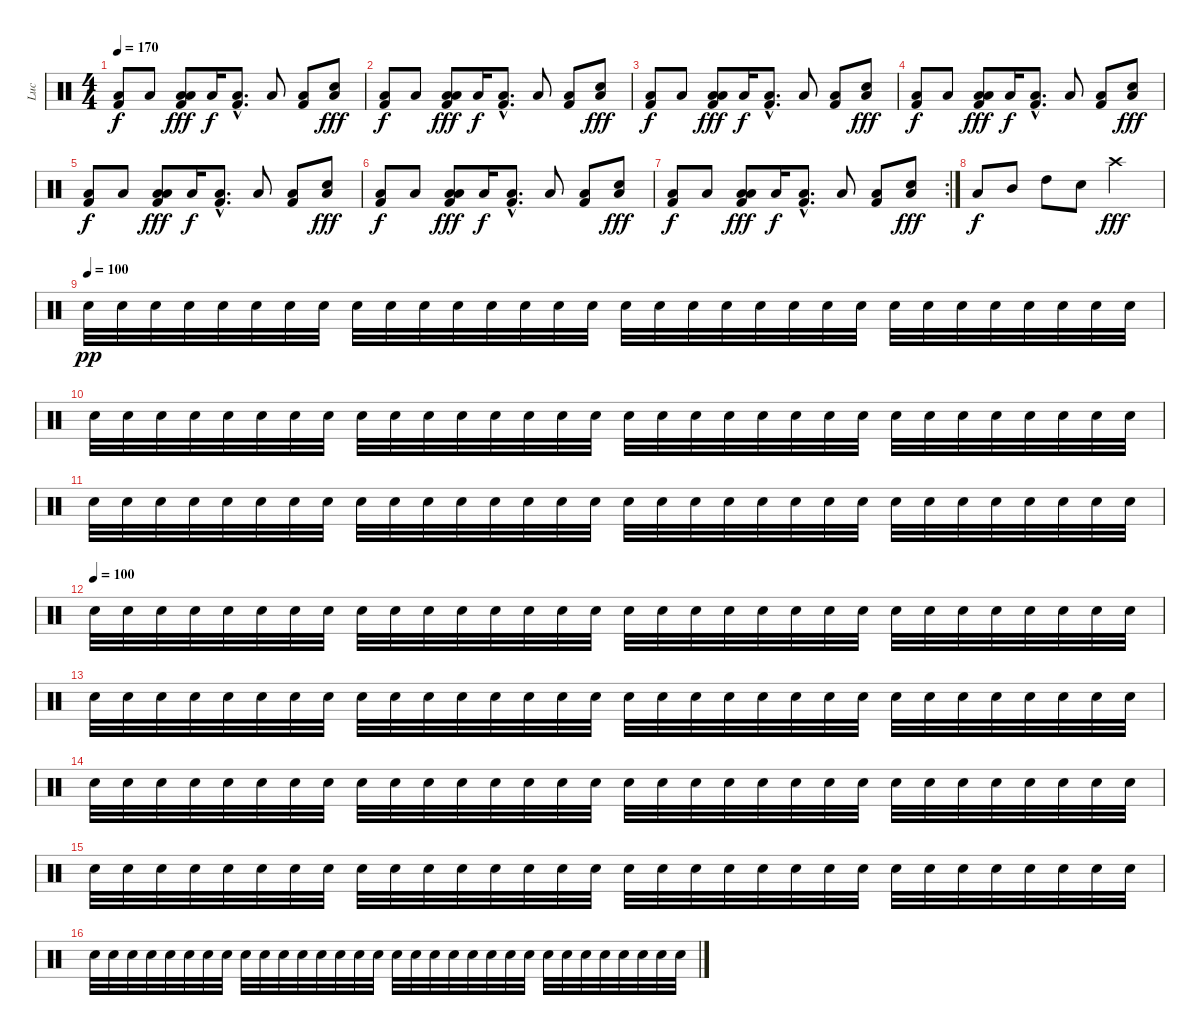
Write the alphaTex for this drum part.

\track ("Luc" "Luc") {instrument percussion}
\staff {score}
\articulation defaults
\ts (4 4)
\tempo 170
\clef neutral
\ks c
("Low Tom (hit)" "Kick (hit) 2").8{dy f} "Low Tom (hit)".8 ("Low Tom (hit)" "Low Tom (hit)" "Kick (hit) 2").8{dy fff} "Low Tom (hit)".16{dy f} ("Low Tom (hit)"{hac} "Kick (hit) 2"{hac}).8{d} "Low Tom (hit)".8 ("Low Tom (hit)" "Kick (hit) 2").8 ("Low Tom (hit)" "Snare (hit) 2").8{dy fff} |
("Low Tom (hit)" "Kick (hit) 2").8{dy f} "Low Tom (hit)".8 ("Low Tom (hit)" "Low Tom (hit)" "Kick (hit) 2").8{dy fff} "Low Tom (hit)".16{dy f} ("Low Tom (hit)"{hac} "Kick (hit) 2"{hac}).8{d} "Low Tom (hit)".8 ("Low Tom (hit)" "Kick (hit) 2").8 ("Low Tom (hit)" "Snare (hit) 2").8{dy fff} |
("Low Tom (hit)" "Kick (hit) 2").8{dy f} "Low Tom (hit)".8 ("Low Tom (hit)" "Low Tom (hit)" "Kick (hit) 2").8{dy fff} "Low Tom (hit)".16{dy f} ("Low Tom (hit)"{hac} "Kick (hit) 2"{hac}).8{d} "Low Tom (hit)".8 ("Low Tom (hit)" "Kick (hit) 2").8 ("Low Tom (hit)" "Snare (hit) 2").8{dy fff} |
("Low Tom (hit)" "Kick (hit) 2").8{dy f} "Low Tom (hit)".8 ("Low Tom (hit)" "Low Tom (hit)" "Kick (hit) 2").8{dy fff} "Low Tom (hit)".16{dy f} ("Low Tom (hit)"{hac} "Kick (hit) 2"{hac}).8{d} "Low Tom (hit)".8 ("Low Tom (hit)" "Kick (hit) 2").8 ("Low Tom (hit)" "Snare (hit) 2").8{dy fff} |
("Low Tom (hit)" "Kick (hit) 2").8{dy f} "Low Tom (hit)".8 ("Low Tom (hit)" "Low Tom (hit)" "Kick (hit) 2").8{dy fff} "Low Tom (hit)".16{dy f} ("Low Tom (hit)"{hac} "Kick (hit) 2"{hac}).8{d} "Low Tom (hit)".8 ("Low Tom (hit)" "Kick (hit) 2").8 ("Low Tom (hit)" "Snare (hit) 2").8{dy fff} |
("Low Tom (hit)" "Kick (hit) 2").8{dy f} "Low Tom (hit)".8 ("Low Tom (hit)" "Low Tom (hit)" "Kick (hit) 2").8{dy fff} "Low Tom (hit)".16{dy f} ("Low Tom (hit)"{hac} "Kick (hit) 2"{hac}).8{d} "Low Tom (hit)".8 ("Low Tom (hit)" "Kick (hit) 2").8 ("Low Tom (hit)" "Snare (hit) 2").8{dy fff} |
\rc 2
("Low Tom (hit)" "Kick (hit) 2").8{dy f} "Low Tom (hit)".8 ("Low Tom (hit)" "Low Tom (hit)" "Kick (hit) 2").8{dy fff} "Low Tom (hit)".16{dy f} ("Low Tom (hit)"{hac} "Kick (hit) 2"{hac}).8{d} "Low Tom (hit)".8 ("Low Tom (hit)" "Kick (hit) 2").8 ("Low Tom (hit)" "Snare (hit) 2").8{dy fff} |
"Low Tom (hit)".8{dy f} "Mid Tom (hit)".8 "High Tom (hit)".8 "Snare (hit) 2".8 "Crash high (hit)".2{dy fff} |
\tempo (100)
"Snare (hit) 2".32{dy pp} "Snare (hit) 2".32 "Snare (hit) 2".32 "Snare (hit) 2".32 "Snare (hit) 2".32 "Snare (hit) 2".32 "Snare (hit) 2".32 "Snare (hit) 2".32 "Snare (hit) 2".32 "Snare (hit) 2".32 "Snare (hit) 2".32 "Snare (hit) 2".32 "Snare (hit) 2".32 "Snare (hit) 2".32 "Snare (hit) 2".32 "Snare (hit) 2".32 "Snare (hit) 2".32 "Snare (hit) 2".32 "Snare (hit) 2".32 "Snare (hit) 2".32 "Snare (hit) 2".32 "Snare (hit) 2".32 "Snare (hit) 2".32 "Snare (hit) 2".32 "Snare (hit) 2".32 "Snare (hit) 2".32 "Snare (hit) 2".32 "Snare (hit) 2".32 "Snare (hit) 2".32 "Snare (hit) 2".32 "Snare (hit) 2".32 "Snare (hit) 2".32 |
"Snare (hit) 2".32 "Snare (hit) 2".32 "Snare (hit) 2".32 "Snare (hit) 2".32 "Snare (hit) 2".32 "Snare (hit) 2".32 "Snare (hit) 2".32 "Snare (hit) 2".32 "Snare (hit) 2".32 "Snare (hit) 2".32 "Snare (hit) 2".32 "Snare (hit) 2".32 "Snare (hit) 2".32 "Snare (hit) 2".32 "Snare (hit) 2".32 "Snare (hit) 2".32 "Snare (hit) 2".32 "Snare (hit) 2".32 "Snare (hit) 2".32 "Snare (hit) 2".32 "Snare (hit) 2".32 "Snare (hit) 2".32 "Snare (hit) 2".32 "Snare (hit) 2".32 "Snare (hit) 2".32 "Snare (hit) 2".32 "Snare (hit) 2".32 "Snare (hit) 2".32 "Snare (hit) 2".32 "Snare (hit) 2".32 "Snare (hit) 2".32 "Snare (hit) 2".32 |
"Snare (hit) 2".32 "Snare (hit) 2".32 "Snare (hit) 2".32 "Snare (hit) 2".32 "Snare (hit) 2".32 "Snare (hit) 2".32 "Snare (hit) 2".32 "Snare (hit) 2".32 "Snare (hit) 2".32 "Snare (hit) 2".32 "Snare (hit) 2".32 "Snare (hit) 2".32 "Snare (hit) 2".32 "Snare (hit) 2".32 "Snare (hit) 2".32 "Snare (hit) 2".32 "Snare (hit) 2".32 "Snare (hit) 2".32 "Snare (hit) 2".32 "Snare (hit) 2".32 "Snare (hit) 2".32 "Snare (hit) 2".32 "Snare (hit) 2".32 "Snare (hit) 2".32 "Snare (hit) 2".32 "Snare (hit) 2".32 "Snare (hit) 2".32 "Snare (hit) 2".32 "Snare (hit) 2".32 "Snare (hit) 2".32 "Snare (hit) 2".32 "Snare (hit) 2".32 |
\tempo (100)
"Snare (hit) 2".32 "Snare (hit) 2".32 "Snare (hit) 2".32 "Snare (hit) 2".32 "Snare (hit) 2".32 "Snare (hit) 2".32 "Snare (hit) 2".32 "Snare (hit) 2".32 "Snare (hit) 2".32 "Snare (hit) 2".32 "Snare (hit) 2".32 "Snare (hit) 2".32 "Snare (hit) 2".32 "Snare (hit) 2".32 "Snare (hit) 2".32 "Snare (hit) 2".32 "Snare (hit) 2".32 "Snare (hit) 2".32 "Snare (hit) 2".32 "Snare (hit) 2".32 "Snare (hit) 2".32 "Snare (hit) 2".32 "Snare (hit) 2".32 "Snare (hit) 2".32 "Snare (hit) 2".32 "Snare (hit) 2".32 "Snare (hit) 2".32 "Snare (hit) 2".32 "Snare (hit) 2".32 "Snare (hit) 2".32 "Snare (hit) 2".32 "Snare (hit) 2".32 |
"Snare (hit) 2".32 "Snare (hit) 2".32 "Snare (hit) 2".32 "Snare (hit) 2".32 "Snare (hit) 2".32 "Snare (hit) 2".32 "Snare (hit) 2".32 "Snare (hit) 2".32 "Snare (hit) 2".32 "Snare (hit) 2".32 "Snare (hit) 2".32 "Snare (hit) 2".32 "Snare (hit) 2".32 "Snare (hit) 2".32 "Snare (hit) 2".32 "Snare (hit) 2".32 "Snare (hit) 2".32 "Snare (hit) 2".32 "Snare (hit) 2".32 "Snare (hit) 2".32 "Snare (hit) 2".32 "Snare (hit) 2".32 "Snare (hit) 2".32 "Snare (hit) 2".32 "Snare (hit) 2".32 "Snare (hit) 2".32 "Snare (hit) 2".32 "Snare (hit) 2".32 "Snare (hit) 2".32 "Snare (hit) 2".32 "Snare (hit) 2".32 "Snare (hit) 2".32 |
"Snare (hit) 2".32 "Snare (hit) 2".32 "Snare (hit) 2".32 "Snare (hit) 2".32 "Snare (hit) 2".32 "Snare (hit) 2".32 "Snare (hit) 2".32 "Snare (hit) 2".32 "Snare (hit) 2".32 "Snare (hit) 2".32 "Snare (hit) 2".32 "Snare (hit) 2".32 "Snare (hit) 2".32 "Snare (hit) 2".32 "Snare (hit) 2".32 "Snare (hit) 2".32 "Snare (hit) 2".32 "Snare (hit) 2".32 "Snare (hit) 2".32 "Snare (hit) 2".32 "Snare (hit) 2".32 "Snare (hit) 2".32 "Snare (hit) 2".32 "Snare (hit) 2".32 "Snare (hit) 2".32 "Snare (hit) 2".32 "Snare (hit) 2".32 "Snare (hit) 2".32 "Snare (hit) 2".32 "Snare (hit) 2".32 "Snare (hit) 2".32 "Snare (hit) 2".32 |
"Snare (hit) 2".32 "Snare (hit) 2".32 "Snare (hit) 2".32 "Snare (hit) 2".32 "Snare (hit) 2".32 "Snare (hit) 2".32 "Snare (hit) 2".32 "Snare (hit) 2".32 "Snare (hit) 2".32 "Snare (hit) 2".32 "Snare (hit) 2".32 "Snare (hit) 2".32 "Snare (hit) 2".32 "Snare (hit) 2".32 "Snare (hit) 2".32 "Snare (hit) 2".32 "Snare (hit) 2".32 "Snare (hit) 2".32 "Snare (hit) 2".32 "Snare (hit) 2".32 "Snare (hit) 2".32 "Snare (hit) 2".32 "Snare (hit) 2".32 "Snare (hit) 2".32 "Snare (hit) 2".32 "Snare (hit) 2".32 "Snare (hit) 2".32 "Snare (hit) 2".32 "Snare (hit) 2".32 "Snare (hit) 2".32 "Snare (hit) 2".32 "Snare (hit) 2".32 |
"Snare (hit) 2".32 "Snare (hit) 2".32 "Snare (hit) 2".32 "Snare (hit) 2".32 "Snare (hit) 2".32 "Snare (hit) 2".32 "Snare (hit) 2".32 "Snare (hit) 2".32 "Snare (hit) 2".32 "Snare (hit) 2".32 "Snare (hit) 2".32 "Snare (hit) 2".32 "Snare (hit) 2".32 "Snare (hit) 2".32 "Snare (hit) 2".32 "Snare (hit) 2".32 "Snare (hit) 2".32 "Snare (hit) 2".32 "Snare (hit) 2".32 "Snare (hit) 2".32 "Snare (hit) 2".32 "Snare (hit) 2".32 "Snare (hit) 2".32 "Snare (hit) 2".32 "Snare (hit) 2".32 "Snare (hit) 2".32 "Snare (hit) 2".32 "Snare (hit) 2".32 "Snare (hit) 2".32 "Snare (hit) 2".32 "Snare (hit) 2".32 "Snare (hit) 2".32
